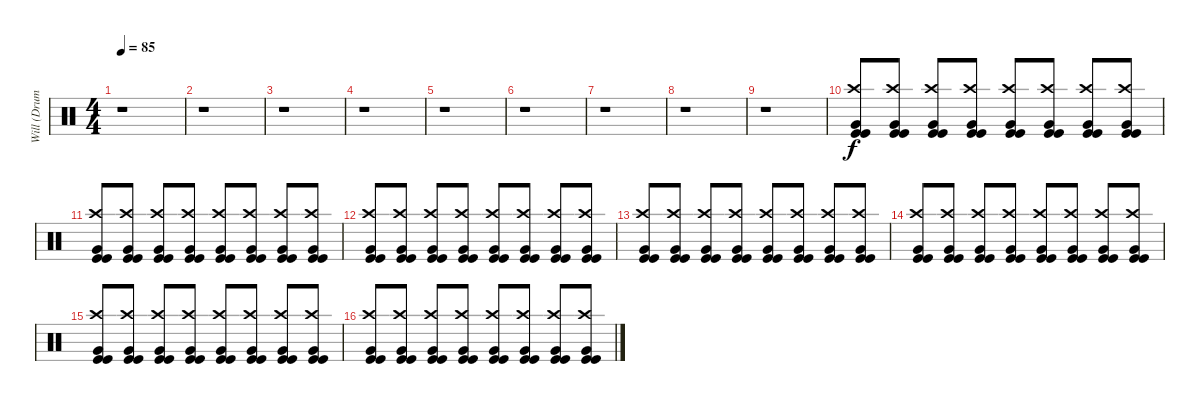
\track ("Will (Drums)" "Will (Drum") {instrument percussion}
\staff {score}
\articulation defaults
\ts (4 4)
\tempo 85
\clef neutral
\ks c
r.1{dy f} |
r.1 |
r.1 |
r.1 |
r.1 |
r.1 |
r.1 |
r.1 |
r.1 |
("Kick (hit)" "Crash high (hit)" "Very Low Tom (hit)" "Kick (hit)").8 ("Kick (hit)" "Crash high (hit)" "Very Low Tom (hit)" "Kick (hit)").8 ("Kick (hit)" "Crash high (hit)" "Very Low Tom (hit)" "Kick (hit)").8 ("Kick (hit)" "Crash high (hit)" "Very Low Tom (hit)" "Kick (hit)").8 ("Kick (hit)" "Crash high (hit)" "Very Low Tom (hit)" "Kick (hit)").8 ("Kick (hit)" "Crash high (hit)" "Very Low Tom (hit)" "Kick (hit)").8 ("Kick (hit)" "Crash high (hit)" "Very Low Tom (hit)" "Kick (hit)").8 ("Kick (hit)" "Crash high (hit)" "Very Low Tom (hit)" "Kick (hit)").8 |
("Kick (hit)" "Crash high (hit)" "Very Low Tom (hit)" "Kick (hit)").8 ("Kick (hit)" "Crash high (hit)" "Very Low Tom (hit)" "Kick (hit)").8 ("Kick (hit)" "Crash high (hit)" "Very Low Tom (hit)" "Kick (hit)").8 ("Kick (hit)" "Crash high (hit)" "Very Low Tom (hit)" "Kick (hit)").8 ("Kick (hit)" "Crash high (hit)" "Very Low Tom (hit)" "Kick (hit)").8 ("Kick (hit)" "Crash high (hit)" "Very Low Tom (hit)" "Kick (hit)").8 ("Kick (hit)" "Crash high (hit)" "Very Low Tom (hit)" "Kick (hit)").8 ("Kick (hit)" "Crash high (hit)" "Very Low Tom (hit)" "Kick (hit)").8 |
("Kick (hit)" "Crash high (hit)" "Very Low Tom (hit)" "Kick (hit)").8 ("Kick (hit)" "Crash high (hit)" "Very Low Tom (hit)" "Kick (hit)").8 ("Kick (hit)" "Crash high (hit)" "Very Low Tom (hit)" "Kick (hit)").8 ("Kick (hit)" "Crash high (hit)" "Very Low Tom (hit)" "Kick (hit)").8 ("Kick (hit)" "Crash high (hit)" "Very Low Tom (hit)" "Kick (hit)").8 ("Kick (hit)" "Crash high (hit)" "Very Low Tom (hit)" "Kick (hit)").8 ("Kick (hit)" "Crash high (hit)" "Very Low Tom (hit)" "Kick (hit)").8 ("Kick (hit)" "Crash high (hit)" "Very Low Tom (hit)" "Kick (hit)").8 |
("Kick (hit)" "Crash high (hit)" "Very Low Tom (hit)" "Kick (hit)").8 ("Kick (hit)" "Crash high (hit)" "Very Low Tom (hit)" "Kick (hit)").8 ("Kick (hit)" "Crash high (hit)" "Very Low Tom (hit)" "Kick (hit)").8 ("Kick (hit)" "Crash high (hit)" "Very Low Tom (hit)" "Kick (hit)").8 ("Kick (hit)" "Crash high (hit)" "Very Low Tom (hit)" "Kick (hit)").8 ("Kick (hit)" "Crash high (hit)" "Very Low Tom (hit)" "Kick (hit)").8 ("Kick (hit)" "Crash high (hit)" "Very Low Tom (hit)" "Kick (hit)").8 ("Kick (hit)" "Crash high (hit)" "Very Low Tom (hit)" "Kick (hit)").8 |
("Kick (hit)" "Crash high (hit)" "Very Low Tom (hit)" "Kick (hit)").8 ("Kick (hit)" "Crash high (hit)" "Very Low Tom (hit)" "Kick (hit)").8 ("Kick (hit)" "Crash high (hit)" "Very Low Tom (hit)" "Kick (hit)").8 ("Kick (hit)" "Crash high (hit)" "Very Low Tom (hit)" "Kick (hit)").8 ("Kick (hit)" "Crash high (hit)" "Very Low Tom (hit)" "Kick (hit)").8 ("Kick (hit)" "Crash high (hit)" "Very Low Tom (hit)" "Kick (hit)").8 ("Kick (hit)" "Crash high (hit)" "Very Low Tom (hit)" "Kick (hit)").8 ("Kick (hit)" "Crash high (hit)" "Very Low Tom (hit)" "Kick (hit)").8 |
("Kick (hit)" "Crash high (hit)" "Very Low Tom (hit)" "Kick (hit)").8 ("Kick (hit)" "Crash high (hit)" "Very Low Tom (hit)" "Kick (hit)").8 ("Kick (hit)" "Crash high (hit)" "Very Low Tom (hit)" "Kick (hit)").8 ("Kick (hit)" "Crash high (hit)" "Very Low Tom (hit)" "Kick (hit)").8 ("Kick (hit)" "Crash high (hit)" "Very Low Tom (hit)" "Kick (hit)").8 ("Kick (hit)" "Crash high (hit)" "Very Low Tom (hit)" "Kick (hit)").8 ("Kick (hit)" "Crash high (hit)" "Very Low Tom (hit)" "Kick (hit)").8 ("Kick (hit)" "Crash high (hit)" "Very Low Tom (hit)" "Kick (hit)").8 |
("Kick (hit)" "Crash high (hit)" "Very Low Tom (hit)" "Kick (hit)").8 ("Kick (hit)" "Crash high (hit)" "Very Low Tom (hit)" "Kick (hit)").8 ("Kick (hit)" "Crash high (hit)" "Very Low Tom (hit)" "Kick (hit)").8 ("Kick (hit)" "Crash high (hit)" "Very Low Tom (hit)" "Kick (hit)").8 ("Kick (hit)" "Crash high (hit)" "Very Low Tom (hit)" "Kick (hit)").8 ("Kick (hit)" "Crash high (hit)" "Very Low Tom (hit)" "Kick (hit)").8 ("Kick (hit)" "Crash high (hit)" "Very Low Tom (hit)" "Kick (hit)").8 ("Kick (hit)" "Crash high (hit)" "Very Low Tom (hit)" "Kick (hit)").8
